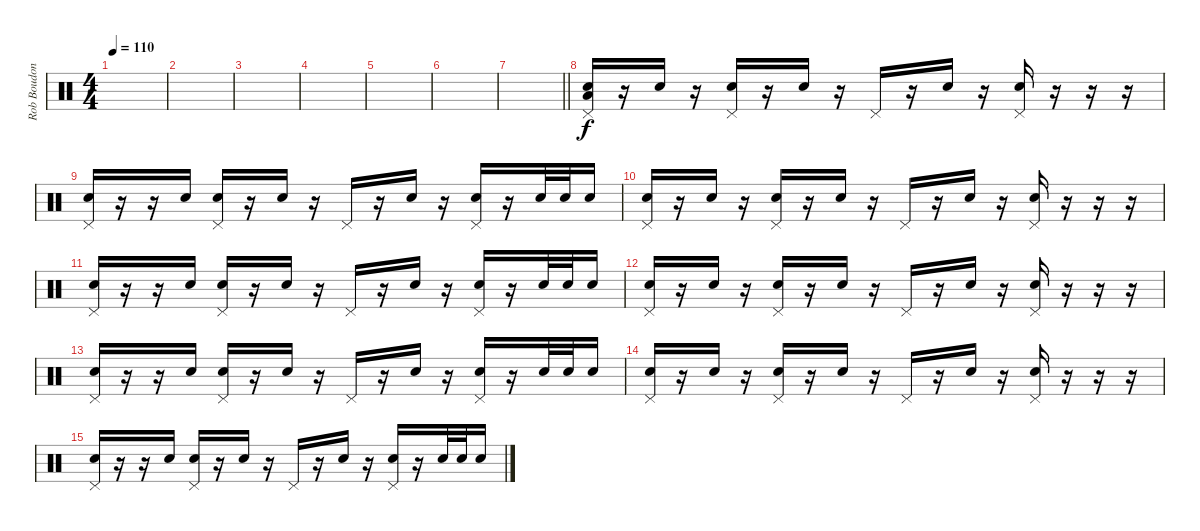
\track ("Rob Boudon [Drums]" "Rob Boudon") {instrument percussion}
\staff {score}
\articulation defaults
\ts (4 4)
\tempo 110
\clef neutral
\ks c
|
|
|
|
|
|
\barLineRight lightlight
|
("Pedal Hi-Hat (hit)" "Electric Snare (hit)" "Low Floor Tom (hit)").16 r.16 "Electric Snare (hit)".16 r.16 ("Pedal Hi-Hat (hit)" "Electric Snare (hit)").16 r.16 "Electric Snare (hit)".16 r.16 "Pedal Hi-Hat (hit)".16 r.16 "Electric Snare (hit)".16 r.16 ("Pedal Hi-Hat (hit)" "Electric Snare (hit)").16 r.16 r.16 r.16 |
("Pedal Hi-Hat (hit)" "Electric Snare (hit)").16 r.16 r.16 "Electric Snare (hit)".16 ("Pedal Hi-Hat (hit)" "Electric Snare (hit)").16 r.16 "Electric Snare (hit)".16 r.16 "Pedal Hi-Hat (hit)".16 r.16 "Electric Snare (hit)".16 r.16 ("Pedal Hi-Hat (hit)" "Electric Snare (hit)").16 r.16 "Electric Snare (hit)".32 "Electric Snare (hit)".32 "Electric Snare (hit)".16 |
("Pedal Hi-Hat (hit)" "Electric Snare (hit)").16 r.16 "Electric Snare (hit)".16 r.16 ("Pedal Hi-Hat (hit)" "Electric Snare (hit)").16 r.16 "Electric Snare (hit)".16 r.16 "Pedal Hi-Hat (hit)".16 r.16 "Electric Snare (hit)".16 r.16 ("Pedal Hi-Hat (hit)" "Electric Snare (hit)").16 r.16 r.16 r.16 |
("Pedal Hi-Hat (hit)" "Electric Snare (hit)").16 r.16 r.16 "Electric Snare (hit)".16 ("Pedal Hi-Hat (hit)" "Electric Snare (hit)").16 r.16 "Electric Snare (hit)".16 r.16 "Pedal Hi-Hat (hit)".16 r.16 "Electric Snare (hit)".16 r.16 ("Pedal Hi-Hat (hit)" "Electric Snare (hit)").16 r.16 "Electric Snare (hit)".32 "Electric Snare (hit)".32 "Electric Snare (hit)".16 |
("Pedal Hi-Hat (hit)" "Electric Snare (hit)").16 r.16 "Electric Snare (hit)".16 r.16 ("Pedal Hi-Hat (hit)" "Electric Snare (hit)").16 r.16 "Electric Snare (hit)".16 r.16 "Pedal Hi-Hat (hit)".16 r.16 "Electric Snare (hit)".16 r.16 ("Pedal Hi-Hat (hit)" "Electric Snare (hit)").16 r.16 r.16 r.16 |
("Pedal Hi-Hat (hit)" "Electric Snare (hit)").16 r.16 r.16 "Electric Snare (hit)".16 ("Pedal Hi-Hat (hit)" "Electric Snare (hit)").16 r.16 "Electric Snare (hit)".16 r.16 "Pedal Hi-Hat (hit)".16 r.16 "Electric Snare (hit)".16 r.16 ("Pedal Hi-Hat (hit)" "Electric Snare (hit)").16 r.16 "Electric Snare (hit)".32 "Electric Snare (hit)".32 "Electric Snare (hit)".16 |
("Pedal Hi-Hat (hit)" "Electric Snare (hit)").16 r.16 "Electric Snare (hit)".16 r.16 ("Pedal Hi-Hat (hit)" "Electric Snare (hit)").16 r.16 "Electric Snare (hit)".16 r.16 "Pedal Hi-Hat (hit)".16 r.16 "Electric Snare (hit)".16 r.16 ("Pedal Hi-Hat (hit)" "Electric Snare (hit)").16 r.16 r.16 r.16 |
("Pedal Hi-Hat (hit)" "Electric Snare (hit)").16 r.16 r.16 "Electric Snare (hit)".16 ("Pedal Hi-Hat (hit)" "Electric Snare (hit)").16 r.16 "Electric Snare (hit)".16 r.16 "Pedal Hi-Hat (hit)".16 r.16 "Electric Snare (hit)".16 r.16 ("Pedal Hi-Hat (hit)" "Electric Snare (hit)").16 r.16 "Electric Snare (hit)".32 "Electric Snare (hit)".32 "Electric Snare (hit)".16
